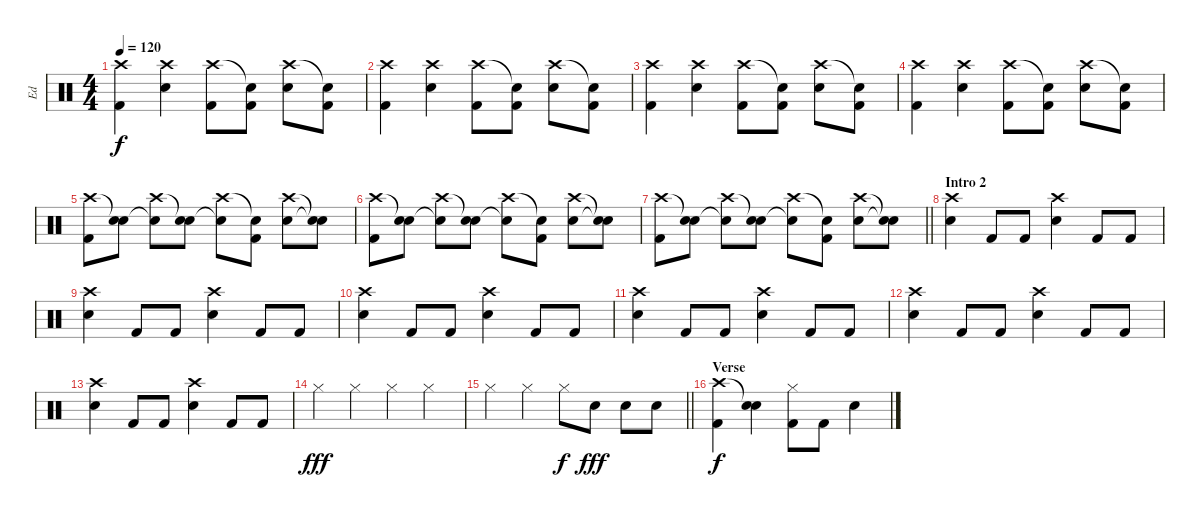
\track ("Ed" "Ed") {instrument percussion}
\staff {score}
\articulation defaults
\ts (4 4)
\tempo 120
\clef neutral
\ks c
("Crash high (hit)" "Kick (hit) 2").4{dy f} ("Crash high (hit)" "Snare (hit) 2").4 ("Crash high (hit)" "Kick (hit) 2").8 ("Snare (hit)"{t} "Kick (hit) 2").8 ("Crash high (hit)" "Snare (hit) 2").8 ("Snare (hit)"{t} "Kick (hit) 2").8 |
("Crash high (hit)" "Kick (hit) 2").4 ("Crash high (hit)" "Snare (hit) 2").4 ("Crash high (hit)" "Kick (hit) 2").8 ("Snare (hit)"{t} "Kick (hit) 2").8 ("Crash high (hit)" "Snare (hit) 2").8 ("Snare (hit)"{t} "Kick (hit) 2").8 |
("Crash high (hit)" "Kick (hit) 2").4 ("Crash high (hit)" "Snare (hit) 2").4 ("Crash high (hit)" "Kick (hit) 2").8 ("Snare (hit)"{t} "Kick (hit) 2").8 ("Crash high (hit)" "Snare (hit) 2").8 ("Snare (hit)"{t} "Kick (hit) 2").8 |
("Crash high (hit)" "Kick (hit) 2").4 ("Crash high (hit)" "Snare (hit) 2").4 ("Crash high (hit)" "Kick (hit) 2").8 ("Snare (hit)"{t} "Kick (hit) 2").8 ("Crash high (hit)" "Snare (hit) 2").8 ("Snare (hit)"{t} "Kick (hit) 2").8 |
("Crash high (hit)" "Kick (hit) 2").8 ("Snare (hit)"{t} "Snare (hit) 2").8 ("Crash high (hit)" "Snare (hit)"{t}).8 ("Snare (hit)"{t} "Snare (hit) 2").8 ("Crash high (hit)" "Snare (hit)"{t}).8 ("Snare (hit)"{t} "Kick (hit) 2").8 ("Crash high (hit)" "Snare (hit) 2").8 ("Snare (hit)"{t} "Snare (hit)"{t}).8 |
("Crash high (hit)" "Kick (hit) 2").8 ("Snare (hit)"{t} "Snare (hit) 2").8 ("Crash high (hit)" "Snare (hit)"{t}).8 ("Snare (hit)"{t} "Snare (hit) 2").8 ("Crash high (hit)" "Snare (hit)"{t}).8 ("Snare (hit)"{t} "Kick (hit) 2").8 ("Crash high (hit)" "Snare (hit) 2").8 ("Snare (hit)"{t} "Snare (hit)"{t}).8 |
\barLineRight lightlight
("Crash high (hit)" "Kick (hit) 2").8 ("Snare (hit)"{t} "Snare (hit) 2").8 ("Crash high (hit)" "Snare (hit)"{t}).8 ("Snare (hit)"{t} "Snare (hit) 2").8 ("Crash high (hit)" "Snare (hit)"{t}).8 ("Snare (hit)"{t} "Kick (hit) 2").8 ("Crash high (hit)" "Snare (hit) 2").8 ("Snare (hit)"{t} "Snare (hit)"{t}).8 |
\section ("" "Intro 2")
("Crash high (hit)" "Snare (hit) 2").4 "Kick (hit) 2".8 "Kick (hit) 2".8 ("Crash high (hit)" "Snare (hit) 2").4 "Kick (hit) 2".8 "Kick (hit) 2".8 |
("Crash high (hit)" "Snare (hit) 2").4 "Kick (hit) 2".8 "Kick (hit) 2".8 ("Crash high (hit)" "Snare (hit) 2").4 "Kick (hit) 2".8 "Kick (hit) 2".8 |
("Crash high (hit)" "Snare (hit) 2").4 "Kick (hit) 2".8 "Kick (hit) 2".8 ("Crash high (hit)" "Snare (hit) 2").4 "Kick (hit) 2".8 "Kick (hit) 2".8 |
("Crash high (hit)" "Snare (hit) 2").4 "Kick (hit) 2".8 "Kick (hit) 2".8 ("Crash high (hit)" "Snare (hit) 2").4 "Kick (hit) 2".8 "Kick (hit) 2".8 |
("Crash high (hit)" "Snare (hit) 2").4 "Kick (hit) 2".8 "Kick (hit) 2".8 ("Crash high (hit)" "Snare (hit) 2").4 "Kick (hit) 2".8 "Kick (hit) 2".8 |
("Crash high (hit)" "Snare (hit) 2").4 "Kick (hit) 2".8 "Kick (hit) 2".8 ("Crash high (hit)" "Snare (hit) 2").4 "Kick (hit) 2".8 "Kick (hit) 2".8 |
"Hi-Hat (closed)".4{dy fff} "Hi-Hat (closed)".4 "Hi-Hat (closed)".4 "Hi-Hat (closed)".4 |
\barLineRight lightlight "Hi-Hat (closed)".4 "Hi-Hat (closed)".4 "Hi-Hat (closed)".8{dy f} "Snare (hit) 2".8{dy fff} "Snare (hit) 2".8 "Snare (hit) 2".8
|
\section ("" "Verse")
("Crash high (hit)" "Kick (hit) 2").4{dy f} ("Snare (hit)"{t} "Snare (hit) 2").4 ("Hi-Hat (closed)" "Kick (hit) 2").8 "Kick (hit) 2".8 "Snare (hit) 2".4
